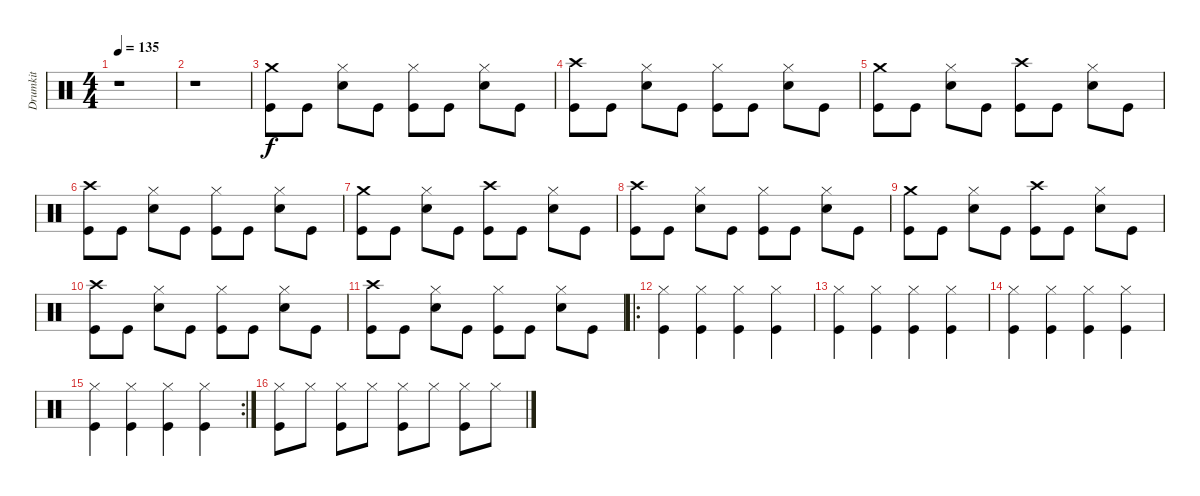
\track ("Drumkit" "Drumkit") {instrument percussion}
\staff {score}
\articulation defaults
\ts (4 4)
\tempo 135
\clef neutral
\ks c
r.1{dy f} |
r.1 |
("Crash medium (hit)" "Kick (hit)").8 "Kick (hit)".8 ("Hi-Hat (closed)" "Snare (hit) 2").8 "Kick (hit)".8 ("Hi-Hat (closed)" "Kick (hit)").8 "Kick (hit)".8 ("Hi-Hat (closed)" "Snare (hit) 2").8 "Kick (hit)".8 |
("Crash high (hit)" "Kick (hit)").8 "Kick (hit)".8 ("Hi-Hat (closed)" "Snare (hit) 2").8 "Kick (hit)".8 ("Hi-Hat (closed)" "Kick (hit)").8 "Kick (hit)".8 ("Hi-Hat (closed)" "Snare (hit) 2").8 "Kick (hit)".8 |
("Crash medium (hit)" "Kick (hit)").8 "Kick (hit)".8 ("Hi-Hat (closed)" "Snare (hit) 2").8 "Kick (hit)".8 ("Crash high (hit)" "Kick (hit)").8 "Kick (hit)".8 ("Hi-Hat (closed)" "Snare (hit) 2").8 "Kick (hit)".8 |
("Crash high (hit)" "Kick (hit)").8 "Kick (hit)".8 ("Hi-Hat (closed)" "Snare (hit) 2").8 "Kick (hit)".8 ("Hi-Hat (closed)" "Kick (hit)").8 "Kick (hit)".8 ("Hi-Hat (closed)" "Snare (hit) 2").8 "Kick (hit)".8 |
("Crash medium (hit)" "Kick (hit)").8 "Kick (hit)".8 ("Hi-Hat (closed)" "Snare (hit) 2").8 "Kick (hit)".8 ("Crash high (hit)" "Kick (hit)").8 "Kick (hit)".8 ("Hi-Hat (closed)" "Snare (hit) 2").8 "Kick (hit)".8 |
("Crash high (hit)" "Kick (hit)").8 "Kick (hit)".8 ("Hi-Hat (closed)" "Snare (hit) 2").8 "Kick (hit)".8 ("Hi-Hat (closed)" "Kick (hit)").8 "Kick (hit)".8 ("Hi-Hat (closed)" "Snare (hit) 2").8 "Kick (hit)".8 |
("Crash medium (hit)" "Kick (hit)").8 "Kick (hit)".8 ("Hi-Hat (closed)" "Snare (hit) 2").8 "Kick (hit)".8 ("Crash high (hit)" "Kick (hit)").8 "Kick (hit)".8 ("Hi-Hat (closed)" "Snare (hit) 2").8 "Kick (hit)".8 |
("Crash high (hit)" "Kick (hit)").8 "Kick (hit)".8 ("Hi-Hat (closed)" "Snare (hit) 2").8 "Kick (hit)".8 ("Hi-Hat (closed)" "Kick (hit)").8 "Kick (hit)".8 ("Hi-Hat (closed)" "Snare (hit) 2").8 "Kick (hit)".8 |
("Crash high (hit)" "Kick (hit)").8 "Kick (hit)".8 ("Hi-Hat (closed)" "Snare (hit) 2").8 "Kick (hit)".8 ("Hi-Hat (closed)" "Kick (hit)").8 "Kick (hit)".8 ("Hi-Hat (closed)" "Snare (hit) 2").8 "Kick (hit)".8 |
\ro
("Hi-Hat (closed)" "Kick (hit)").4 ("Hi-Hat (closed)" "Kick (hit)").4 ("Hi-Hat (closed)" "Kick (hit)").4 ("Hi-Hat (closed)" "Kick (hit)").4 |
("Hi-Hat (closed)" "Kick (hit)").4 ("Hi-Hat (closed)" "Kick (hit)").4 ("Hi-Hat (closed)" "Kick (hit)").4 ("Hi-Hat (closed)" "Kick (hit)").4 |
("Hi-Hat (closed)" "Kick (hit)").4 ("Hi-Hat (closed)" "Kick (hit)").4 ("Hi-Hat (closed)" "Kick (hit)").4 ("Hi-Hat (closed)" "Kick (hit)").4 |
\rc 2
("Hi-Hat (closed)" "Kick (hit)").4 ("Hi-Hat (closed)" "Kick (hit)").4 ("Hi-Hat (closed)" "Kick (hit)").4 ("Hi-Hat (closed)" "Kick (hit)").4 |
("Hi-Hat (closed)" "Kick (hit)").8 "Hi-Hat (closed)".8 ("Hi-Hat (closed)" "Kick (hit)").8 "Hi-Hat (closed)".8 ("Hi-Hat (closed)" "Kick (hit)").8 "Hi-Hat (closed)".8 ("Hi-Hat (closed)" "Kick (hit)").8 "Hi-Hat (closed)".8
